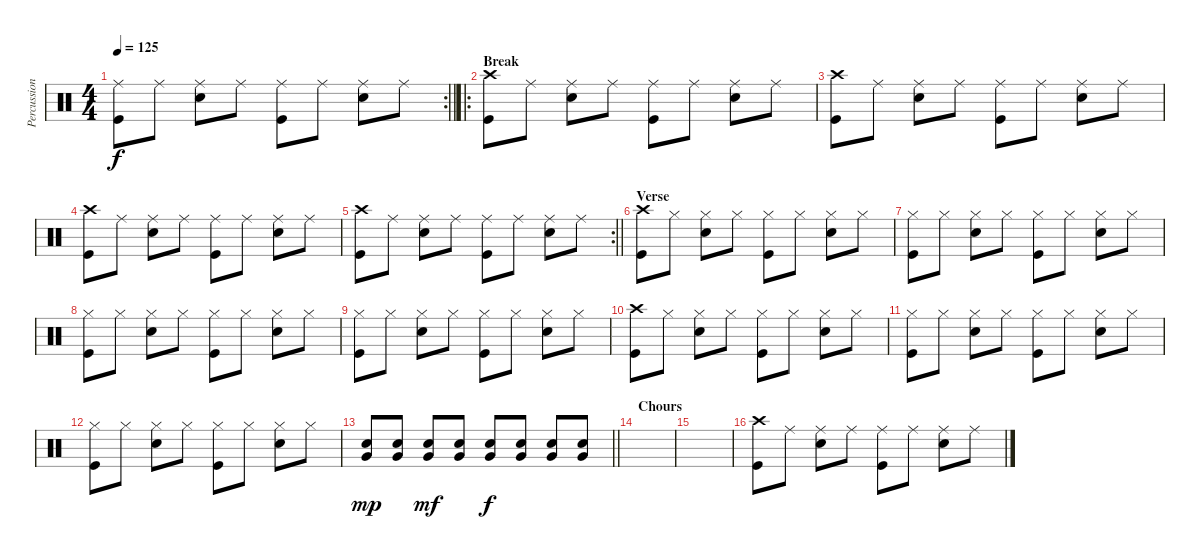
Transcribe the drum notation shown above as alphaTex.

\track ("Percussion" "Percussion") {instrument percussion}
\staff {score}
\articulation defaults
\rc 2
\ts (4 4)
\tempo 125
\clef neutral
\barLineRight lightlight
\ks c
("Kick (hit)" "Ride (middle)").8{dy f} "Ride (middle)".8 ("Snare (hit) 2" "Ride (middle)").8 "Ride (middle)".8 ("Kick (hit)" "Ride (middle)").8 "Ride (middle)".8 ("Snare (hit) 2" "Ride (middle)").8 "Ride (middle)".8 |
\ro
\section ("" "Break")
("Kick (hit)" "Crash high (hit)").8 "Ride (middle)".8 ("Snare (hit) 2" "Ride (middle)").8 "Ride (middle)".8 ("Kick (hit)" "Ride (middle)").8 "Ride (middle)".8 ("Snare (hit) 2" "Ride (middle)").8 "Ride (middle)".8 |
("Kick (hit)" "Crash high (hit)").8 "Ride (middle)".8 ("Snare (hit) 2" "Ride (middle)").8 "Ride (middle)".8 ("Kick (hit)" "Ride (middle)").8 "Ride (middle)".8 ("Snare (hit) 2" "Ride (middle)").8 "Ride (middle)".8 |
("Kick (hit)" "Crash high (hit)").8 "Ride (middle)".8 ("Snare (hit) 2" "Ride (middle)").8 "Ride (middle)".8 ("Kick (hit)" "Ride (middle)").8 "Ride (middle)".8 ("Snare (hit) 2" "Ride (middle)").8 "Ride (middle)".8 |
\rc 2
\barLineRight lightlight
("Kick (hit)" "Crash high (hit)").8 "Ride (middle)".8 ("Snare (hit) 2" "Ride (middle)").8 "Ride (middle)".8 ("Kick (hit)" "Ride (middle)").8 "Ride (middle)".8 ("Snare (hit) 2" "Ride (middle)").8 "Ride (middle)".8 |
\section ("" "Verse")
("Kick (hit)" "Crash high (hit)").8 "Hi-Hat (closed)".8 ("Snare (hit) 2" "Hi-Hat (closed)").8 "Hi-Hat (closed)".8 ("Kick (hit)" "Hi-Hat (closed)").8 "Hi-Hat (closed)".8 ("Snare (hit) 2" "Hi-Hat (closed)").8 "Hi-Hat (closed)".8 |
("Kick (hit)" "Hi-Hat (closed)").8 "Hi-Hat (closed)".8 ("Snare (hit) 2" "Hi-Hat (closed)").8 "Hi-Hat (closed)".8 ("Kick (hit)" "Hi-Hat (closed)").8 "Hi-Hat (closed)".8 ("Snare (hit) 2" "Hi-Hat (closed)").8 "Hi-Hat (closed)".8 |
("Kick (hit)" "Hi-Hat (closed)").8 "Hi-Hat (closed)".8 ("Snare (hit) 2" "Hi-Hat (closed)").8 "Hi-Hat (closed)".8 ("Kick (hit)" "Hi-Hat (closed)").8 "Hi-Hat (closed)".8 ("Snare (hit) 2" "Hi-Hat (closed)").8 "Hi-Hat (closed)".8 |
("Kick (hit)" "Hi-Hat (closed)").8 "Hi-Hat (closed)".8 ("Snare (hit) 2" "Hi-Hat (closed)").8 "Hi-Hat (closed)".8 ("Kick (hit)" "Hi-Hat (closed)").8 "Hi-Hat (closed)".8 ("Snare (hit) 2" "Hi-Hat (closed)").8 "Hi-Hat (closed)".8 |
("Kick (hit)" "Crash high (hit)").8 "Hi-Hat (closed)".8 ("Snare (hit) 2" "Hi-Hat (closed)").8 "Hi-Hat (closed)".8 ("Kick (hit)" "Hi-Hat (closed)").8 "Hi-Hat (closed)".8 ("Snare (hit) 2" "Hi-Hat (closed)").8 "Hi-Hat (closed)".8 |
("Kick (hit)" "Hi-Hat (closed)").8 "Hi-Hat (closed)".8 ("Snare (hit) 2" "Hi-Hat (closed)").8 "Hi-Hat (closed)".8 ("Kick (hit)" "Hi-Hat (closed)").8 "Hi-Hat (closed)".8 ("Snare (hit) 2" "Hi-Hat (closed)").8 "Hi-Hat (closed)".8 |
("Kick (hit)" "Hi-Hat (closed)").8 "Hi-Hat (closed)".8 ("Snare (hit) 2" "Hi-Hat (closed)").8 "Hi-Hat (closed)".8 ("Kick (hit)" "Hi-Hat (closed)").8 "Hi-Hat (closed)".8 ("Snare (hit) 2" "Hi-Hat (closed)").8 "Hi-Hat (closed)".8 |
\barLineRight lightlight
("Snare (hit) 2" "Very Low Tom (hit)").8{dy mp} ("Snare (hit) 2" "Very Low Tom (hit)").8 ("Snare (hit) 2" "Very Low Tom (hit)").8{dy mf} ("Snare (hit) 2" "Very Low Tom (hit)").8 ("Snare (hit) 2" "Very Low Tom (hit)").8{dy f} ("Snare (hit) 2" "Very Low Tom (hit)").8 ("Snare (hit) 2" "Very Low Tom (hit)").8 ("Snare (hit) 2" "Very Low Tom (hit)").8 |
\section ("" "Chours")
|
|
("Kick (hit)" "Crash high (hit)").8 "Ride (middle)".8 ("Snare (hit) 2" "Ride (middle)").8 "Ride (middle)".8 ("Kick (hit)" "Ride (middle)").8 "Ride (middle)".8 ("Snare (hit) 2" "Ride (middle)").8 "Ride (middle)".8
